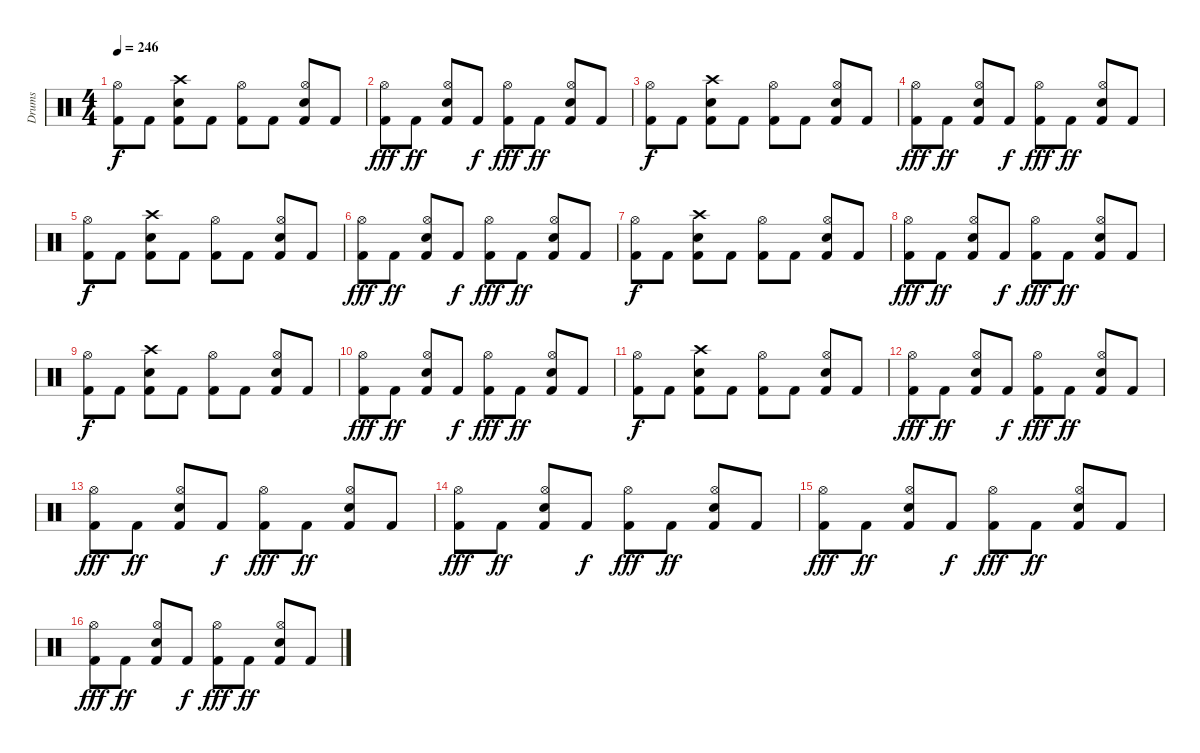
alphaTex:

\track ("Drums" "Drums") {instrument percussion}
\staff {score}
\articulation defaults
\ts (4 4)
\tempo 246
\clef neutral
\ks c
("Kick (hit) 2" "Hi-Hat (open)").8{dy f volume 12} "Kick (hit) 2".8 ("Kick (hit) 2" "Snare (hit) 2" "Crash high (hit)").8 "Kick (hit) 2".8 ("Kick (hit) 2" "Hi-Hat (open)").8 "Kick (hit) 2".8 ("Kick (hit) 2" "Snare (hit) 2" "Hi-Hat (open)").8 "Kick (hit) 2".8 |
("Kick (hit) 2" "Hi-Hat (open)").8{dy fff volume 12} "Kick (hit) 2".8{dy ff} ("Kick (hit) 2" "Snare (hit) 2" "Hi-Hat (open)").8 "Kick (hit) 2".8{dy f} ("Kick (hit) 2" "Hi-Hat (open)").8{dy fff} "Kick (hit) 2".8{dy ff} ("Kick (hit) 2" "Snare (hit) 2" "Hi-Hat (open)").8 "Kick (hit) 2".8 |
("Kick (hit) 2" "Hi-Hat (open)").8{dy f volume 12} "Kick (hit) 2".8 ("Kick (hit) 2" "Snare (hit) 2" "Crash high (hit)").8 "Kick (hit) 2".8 ("Kick (hit) 2" "Hi-Hat (open)").8 "Kick (hit) 2".8 ("Kick (hit) 2" "Snare (hit) 2" "Hi-Hat (open)").8 "Kick (hit) 2".8 |
("Kick (hit) 2" "Hi-Hat (open)").8{dy fff volume 12} "Kick (hit) 2".8{dy ff} ("Kick (hit) 2" "Snare (hit) 2" "Hi-Hat (open)").8 "Kick (hit) 2".8{dy f} ("Kick (hit) 2" "Hi-Hat (open)").8{dy fff} "Kick (hit) 2".8{dy ff} ("Kick (hit) 2" "Snare (hit) 2" "Hi-Hat (open)").8 "Kick (hit) 2".8 |
("Kick (hit) 2" "Hi-Hat (open)").8{dy f volume 12} "Kick (hit) 2".8 ("Kick (hit) 2" "Snare (hit) 2" "Crash high (hit)").8 "Kick (hit) 2".8 ("Kick (hit) 2" "Hi-Hat (open)").8 "Kick (hit) 2".8 ("Kick (hit) 2" "Snare (hit) 2" "Hi-Hat (open)").8 "Kick (hit) 2".8 |
("Kick (hit) 2" "Hi-Hat (open)").8{dy fff volume 12} "Kick (hit) 2".8{dy ff} ("Kick (hit) 2" "Snare (hit) 2" "Hi-Hat (open)").8 "Kick (hit) 2".8{dy f} ("Kick (hit) 2" "Hi-Hat (open)").8{dy fff} "Kick (hit) 2".8{dy ff} ("Kick (hit) 2" "Snare (hit) 2" "Hi-Hat (open)").8 "Kick (hit) 2".8 |
("Kick (hit) 2" "Hi-Hat (open)").8{dy f volume 12} "Kick (hit) 2".8 ("Kick (hit) 2" "Snare (hit) 2" "Crash high (hit)").8 "Kick (hit) 2".8 ("Kick (hit) 2" "Hi-Hat (open)").8 "Kick (hit) 2".8 ("Kick (hit) 2" "Snare (hit) 2" "Hi-Hat (open)").8 "Kick (hit) 2".8 |
("Kick (hit) 2" "Hi-Hat (open)").8{dy fff volume 12} "Kick (hit) 2".8{dy ff} ("Kick (hit) 2" "Snare (hit) 2" "Hi-Hat (open)").8 "Kick (hit) 2".8{dy f} ("Kick (hit) 2" "Hi-Hat (open)").8{dy fff} "Kick (hit) 2".8{dy ff} ("Kick (hit) 2" "Snare (hit) 2" "Hi-Hat (open)").8 "Kick (hit) 2".8 |
("Kick (hit) 2" "Hi-Hat (open)").8{dy f volume 12} "Kick (hit) 2".8 ("Kick (hit) 2" "Snare (hit) 2" "Crash high (hit)").8 "Kick (hit) 2".8 ("Kick (hit) 2" "Hi-Hat (open)").8 "Kick (hit) 2".8 ("Kick (hit) 2" "Snare (hit) 2" "Hi-Hat (open)").8 "Kick (hit) 2".8 |
("Kick (hit) 2" "Hi-Hat (open)").8{dy fff volume 12} "Kick (hit) 2".8{dy ff} ("Kick (hit) 2" "Snare (hit) 2" "Hi-Hat (open)").8 "Kick (hit) 2".8{dy f} ("Kick (hit) 2" "Hi-Hat (open)").8{dy fff} "Kick (hit) 2".8{dy ff} ("Kick (hit) 2" "Snare (hit) 2" "Hi-Hat (open)").8 "Kick (hit) 2".8 |
("Kick (hit) 2" "Hi-Hat (open)").8{dy f volume 12} "Kick (hit) 2".8 ("Kick (hit) 2" "Snare (hit) 2" "Crash high (hit)").8 "Kick (hit) 2".8 ("Kick (hit) 2" "Hi-Hat (open)").8 "Kick (hit) 2".8 ("Kick (hit) 2" "Snare (hit) 2" "Hi-Hat (open)").8 "Kick (hit) 2".8 |
("Kick (hit) 2" "Hi-Hat (open)").8{dy fff volume 12} "Kick (hit) 2".8{dy ff} ("Kick (hit) 2" "Snare (hit) 2" "Hi-Hat (open)").8 "Kick (hit) 2".8{dy f} ("Kick (hit) 2" "Hi-Hat (open)").8{dy fff} "Kick (hit) 2".8{dy ff} ("Kick (hit) 2" "Snare (hit) 2" "Hi-Hat (open)").8 "Kick (hit) 2".8 |
("Kick (hit) 2" "Hi-Hat (open)").8{dy fff volume 12} "Kick (hit) 2".8{dy ff} ("Kick (hit) 2" "Snare (hit) 2" "Hi-Hat (open)").8 "Kick (hit) 2".8{dy f} ("Kick (hit) 2" "Hi-Hat (open)").8{dy fff} "Kick (hit) 2".8{dy ff} ("Kick (hit) 2" "Snare (hit) 2" "Hi-Hat (open)").8 "Kick (hit) 2".8 |
("Kick (hit) 2" "Hi-Hat (open)").8{dy fff volume 12} "Kick (hit) 2".8{dy ff} ("Kick (hit) 2" "Snare (hit) 2" "Hi-Hat (open)").8 "Kick (hit) 2".8{dy f} ("Kick (hit) 2" "Hi-Hat (open)").8{dy fff} "Kick (hit) 2".8{dy ff} ("Kick (hit) 2" "Snare (hit) 2" "Hi-Hat (open)").8 "Kick (hit) 2".8 |
("Kick (hit) 2" "Hi-Hat (open)").8{dy fff volume 12} "Kick (hit) 2".8{dy ff} ("Kick (hit) 2" "Snare (hit) 2" "Hi-Hat (open)").8 "Kick (hit) 2".8{dy f} ("Kick (hit) 2" "Hi-Hat (open)").8{dy fff} "Kick (hit) 2".8{dy ff} ("Kick (hit) 2" "Snare (hit) 2" "Hi-Hat (open)").8 "Kick (hit) 2".8 |
("Kick (hit) 2" "Hi-Hat (open)").8{dy fff volume 12} "Kick (hit) 2".8{dy ff} ("Kick (hit) 2" "Snare (hit) 2" "Hi-Hat (open)").8 "Kick (hit) 2".8{dy f} ("Kick (hit) 2" "Hi-Hat (open)").8{dy fff} "Kick (hit) 2".8{dy ff} ("Kick (hit) 2" "Snare (hit) 2" "Hi-Hat (open)").8 "Kick (hit) 2".8
